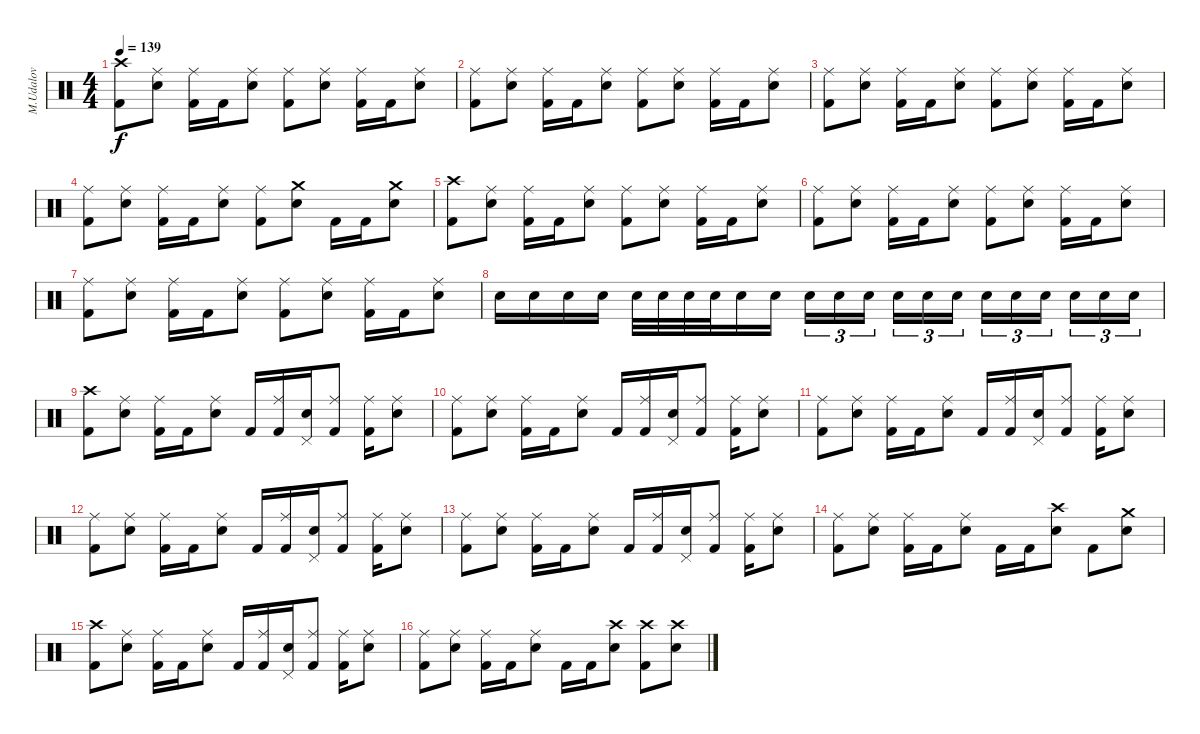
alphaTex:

\track ("M.Udalov" "M.Udalov") {instrument percussion}
\staff {score}
\articulation defaults
\ts (4 4)
\tempo 139
\clef neutral
\ks c
("Crash high (hit)" "Kick (hit) 2").8{dy f} ("Ride (middle)" "Snare (hit) 2").8 ("Ride (middle)" "Kick (hit) 2").16 "Kick (hit) 2".16 ("Ride (middle)" "Snare (hit) 2").8 ("Ride (middle)" "Kick (hit) 2").8 ("Ride (middle)" "Snare (hit) 2").8 ("Ride (middle)" "Kick (hit) 2").16 "Kick (hit) 2".16 ("Ride (middle)" "Snare (hit) 2").8 |
("Ride (middle)" "Kick (hit) 2").8 ("Ride (middle)" "Snare (hit) 2").8 ("Ride (middle)" "Kick (hit) 2").16 "Kick (hit) 2".16 ("Ride (middle)" "Snare (hit) 2").8 ("Ride (middle)" "Kick (hit) 2").8 ("Ride (middle)" "Snare (hit) 2").8 ("Ride (middle)" "Kick (hit) 2").16 "Kick (hit) 2".16 ("Ride (middle)" "Snare (hit) 2").8 |
("Ride (middle)" "Kick (hit) 2").8 ("Ride (middle)" "Snare (hit) 2").8 ("Ride (middle)" "Kick (hit) 2").16 "Kick (hit) 2".16 ("Ride (middle)" "Snare (hit) 2").8 ("Ride (middle)" "Kick (hit) 2").8 ("Ride (middle)" "Snare (hit) 2").8 ("Ride (middle)" "Kick (hit) 2").16 "Kick (hit) 2".16 ("Ride (middle)" "Snare (hit) 2").8 |
("Ride (middle)" "Kick (hit) 2").8 ("Ride (middle)" "Snare (hit) 2").8 ("Ride (middle)" "Kick (hit) 2").16 "Kick (hit) 2".16 ("Ride (middle)" "Snare (hit) 2").8 ("Ride (middle)" "Kick (hit) 2").8 ("Crash medium (hit)" "Snare (hit) 2").8 "Kick (hit) 2".16 "Kick (hit) 2".16 ("Crash medium (hit)" "Snare (hit) 2").8 |
("Crash high (hit)" "Kick (hit) 2").8 ("Ride (middle)" "Snare (hit) 2").8 ("Ride (middle)" "Kick (hit) 2").16 "Kick (hit) 2".16 ("Ride (middle)" "Snare (hit) 2").8 ("Ride (middle)" "Kick (hit) 2").8 ("Ride (middle)" "Snare (hit) 2").8 ("Ride (middle)" "Kick (hit) 2").16 "Kick (hit) 2".16 ("Ride (middle)" "Snare (hit) 2").8 |
("Ride (middle)" "Kick (hit) 2").8 ("Ride (middle)" "Snare (hit) 2").8 ("Ride (middle)" "Kick (hit) 2").16 "Kick (hit) 2".16 ("Ride (middle)" "Snare (hit) 2").8 ("Ride (middle)" "Kick (hit) 2").8 ("Ride (middle)" "Snare (hit) 2").8 ("Ride (middle)" "Kick (hit) 2").16 "Kick (hit) 2".16 ("Ride (middle)" "Snare (hit) 2").8 |
("Ride (middle)" "Kick (hit) 2").8 ("Ride (middle)" "Snare (hit) 2").8 ("Ride (middle)" "Kick (hit) 2").16 "Kick (hit) 2".16 ("Ride (middle)" "Snare (hit) 2").8 ("Ride (middle)" "Kick (hit) 2").8 ("Ride (middle)" "Snare (hit) 2").8 ("Ride (middle)" "Kick (hit) 2").16 "Kick (hit) 2".16 ("Ride (middle)" "Snare (hit) 2").8 |
"Snare (hit) 2".16 "Snare (hit) 2".16 "Snare (hit) 2".16 "Snare (hit) 2".16 "Snare (hit) 2".32 "Snare (hit) 2".32 "Snare (hit) 2".32 "Snare (hit) 2".32 "Snare (hit) 2".16 "Snare (hit) 2".16 "Snare (hit) 2".16{tu (3 2)} "Snare (hit) 2".16{tu (3 2)} "Snare (hit) 2".16{tu (3 2)} "Snare (hit) 2".16{tu (3 2)} "Snare (hit) 2".16{tu (3 2)} "Snare (hit) 2".16{tu (3 2)} "Snare (hit) 2".16{tu (3 2)} "Snare (hit) 2".16{tu (3 2)} "Snare (hit) 2".16{tu (3 2)} "Snare (hit) 2".16{tu (3 2)} "Snare (hit) 2".16{tu (3 2)} "Snare (hit) 2".16{tu (3 2)} |
("Crash high (hit)" "Kick (hit) 2").8 ("Ride (middle)" "Snare (hit) 2").8 ("Ride (middle)" "Kick (hit) 2").16 "Kick (hit) 2".16 ("Ride (middle)" "Snare (hit) 2").8 "Kick (hit) 2".16 ("Ride (middle)" "Kick (hit) 2").16 ("Pedal Hi-Hat (hit)" "Snare (hit) 2").16 ("Ride (middle)" "Kick (hit) 2").8 ("Ride (middle)" "Kick (hit) 2").16 ("Ride (middle)" "Snare (hit) 2").8 |
("Ride (middle)" "Kick (hit) 2").8 ("Ride (middle)" "Snare (hit) 2").8 ("Ride (middle)" "Kick (hit) 2").16 "Kick (hit) 2".16 ("Ride (middle)" "Snare (hit) 2").8 "Kick (hit) 2".16 ("Ride (middle)" "Kick (hit) 2").16 ("Pedal Hi-Hat (hit)" "Snare (hit) 2").16 ("Ride (middle)" "Kick (hit) 2").8 ("Ride (middle)" "Kick (hit) 2").16 ("Ride (middle)" "Snare (hit) 2").8 |
("Ride (middle)" "Kick (hit) 2").8 ("Ride (middle)" "Snare (hit) 2").8 ("Ride (middle)" "Kick (hit) 2").16 "Kick (hit) 2".16 ("Ride (middle)" "Snare (hit) 2").8 "Kick (hit) 2".16 ("Ride (middle)" "Kick (hit) 2").16 ("Pedal Hi-Hat (hit)" "Snare (hit) 2").16 ("Ride (middle)" "Kick (hit) 2").8 ("Ride (middle)" "Kick (hit) 2").16 ("Ride (middle)" "Snare (hit) 2").8 |
("Ride (middle)" "Kick (hit) 2").8 ("Ride (middle)" "Snare (hit) 2").8 ("Ride (middle)" "Kick (hit) 2").16 "Kick (hit) 2".16 ("Ride (middle)" "Snare (hit) 2").8 "Kick (hit) 2".16 ("Ride (middle)" "Kick (hit) 2").16 ("Pedal Hi-Hat (hit)" "Snare (hit) 2").16 ("Ride (middle)" "Kick (hit) 2").8 ("Ride (middle)" "Kick (hit) 2").16 ("Ride (middle)" "Snare (hit) 2").8 |
("Ride (middle)" "Kick (hit) 2").8 ("Ride (middle)" "Snare (hit) 2").8 ("Ride (middle)" "Kick (hit) 2").16 "Kick (hit) 2".16 ("Ride (middle)" "Snare (hit) 2").8 "Kick (hit) 2".16 ("Ride (middle)" "Kick (hit) 2").16 ("Pedal Hi-Hat (hit)" "Snare (hit) 2").16 ("Ride (middle)" "Kick (hit) 2").8 ("Ride (middle)" "Kick (hit) 2").16 ("Ride (middle)" "Snare (hit) 2").8 |
("Ride (middle)" "Kick (hit) 2").8 ("Ride (middle)" "Snare (hit) 2").8 ("Ride (middle)" "Kick (hit) 2").16 "Kick (hit) 2".16 ("Ride (middle)" "Snare (hit) 2").8 "Kick (hit) 2".16 "Kick (hit) 2".16 ("Crash high (hit)" "Snare (hit) 2").8 "Kick (hit) 2".8 ("Crash medium (hit)" "Snare (hit) 2").8 |
("Crash high (hit)" "Kick (hit) 2").8 ("Ride (middle)" "Snare (hit) 2").8 ("Ride (middle)" "Kick (hit) 2").16 "Kick (hit) 2".16 ("Ride (middle)" "Snare (hit) 2").8 "Kick (hit) 2".16 ("Ride (middle)" "Kick (hit) 2").16 ("Pedal Hi-Hat (hit)" "Snare (hit) 2").16 ("Ride (middle)" "Kick (hit) 2").8 ("Ride (middle)" "Kick (hit) 2").16 ("Ride (middle)" "Snare (hit) 2").8 |
("Ride (middle)" "Kick (hit) 2").8 ("Ride (middle)" "Snare (hit) 2").8 ("Ride (middle)" "Kick (hit) 2").16 "Kick (hit) 2".16 ("Ride (middle)" "Snare (hit) 2").8 "Kick (hit) 2".16 "Kick (hit) 2".16 ("Crash high (hit)" "Snare (hit) 2").8 ("Crash high (hit)" "Kick (hit) 2").8 ("Crash high (hit)" "Snare (hit) 2").8
